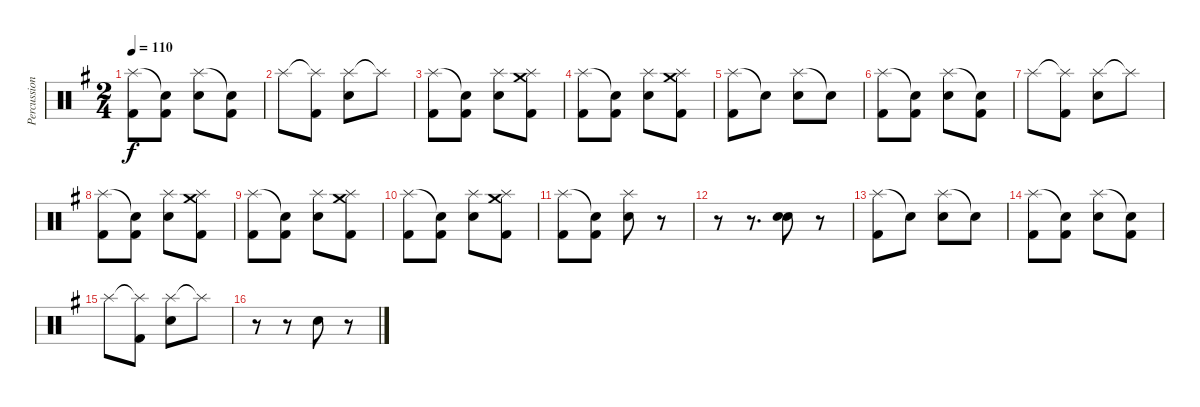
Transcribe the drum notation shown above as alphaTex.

\track ("Percussion" "Percussion") {instrument percussion}
\staff {score}
\articulation defaults
\ts (2 4)
\tempo 110
\clef neutral
\ks g
("Splash (hit)" "Kick (hit) 2").8{dy f} ("Snare (hit)"{t} "Kick (hit) 2").8 ("Splash (hit)" "Electric Snare (hit)").8 ("Snare (hit)"{t} "Kick (hit) 2").8 |
"Splash (hit)".8 ("Splash (hit)"{t} "Kick (hit) 2").8 ("Splash (hit)" "Electric Snare (hit)").8 "Splash (hit)"{t}.8 |
("Splash (hit)" "Kick (hit) 2").8 ("Snare (hit)"{t} "Kick (hit) 2").8 ("Splash (hit)" "Electric Snare (hit)").8 ("Crash medium (hit)" "Splash (hit)" "Kick (hit) 2").8 |
("Splash (hit)" "Kick (hit) 2").8 ("Snare (hit)"{t} "Kick (hit) 2").8 ("Splash (hit)" "Electric Snare (hit)").8 ("Crash medium (hit)" "Splash (hit)" "Kick (hit) 2").8 |
("Splash (hit)" "Kick (hit) 2").8 "Snare (hit)"{t}.8 ("Splash (hit)" "Electric Snare (hit)").8 "Snare (hit)"{t}.8 |
("Splash (hit)" "Kick (hit) 2").8 ("Snare (hit)"{t} "Kick (hit) 2").8 ("Splash (hit)" "Electric Snare (hit)").8 ("Snare (hit)"{t} "Kick (hit) 2").8 |
"Splash (hit)".8 ("Splash (hit)"{t} "Kick (hit) 2").8 ("Splash (hit)" "Electric Snare (hit)").8 "Splash (hit)"{t}.8 |
("Splash (hit)" "Kick (hit) 2").8 ("Snare (hit)"{t} "Kick (hit) 2").8 ("Splash (hit)" "Electric Snare (hit)").8 ("Crash medium (hit)" "Splash (hit)" "Kick (hit) 2").8 |
("Splash (hit)" "Kick (hit) 2").8 ("Snare (hit)"{t} "Kick (hit) 2").8 ("Splash (hit)" "Electric Snare (hit)").8 ("Crash medium (hit)" "Splash (hit)" "Kick (hit) 2").8 |
("Splash (hit)" "Kick (hit) 2").8 ("Snare (hit)"{t} "Kick (hit) 2").8 ("Splash (hit)" "Electric Snare (hit)").8 ("Crash medium (hit)" "Splash (hit)" "Kick (hit) 2").8 |
("Splash (hit)" "Kick (hit) 2").8 ("Snare (hit)"{t} "Kick (hit) 2").8 ("Splash (hit)" "Electric Snare (hit)").8 r.8 |
r.8 r.8{d} ("Electric Snare (hit)" "Electric Snare (hit)").8 r.8 |
("Splash (hit)" "Kick (hit) 2").8 "Snare (hit)"{t}.8 ("Splash (hit)" "Electric Snare (hit)").8 "Snare (hit)"{t}.8 |
("Splash (hit)" "Kick (hit) 2").8 ("Snare (hit)"{t} "Kick (hit) 2").8 ("Splash (hit)" "Electric Snare (hit)").8 ("Snare (hit)"{t} "Kick (hit) 2").8 |
"Splash (hit)".8 ("Splash (hit)"{t} "Kick (hit) 2").8 ("Splash (hit)" "Electric Snare (hit)").8 "Splash (hit)"{t}.8 |
r.8 r.8 "Electric Snare (hit)".8 r.8
